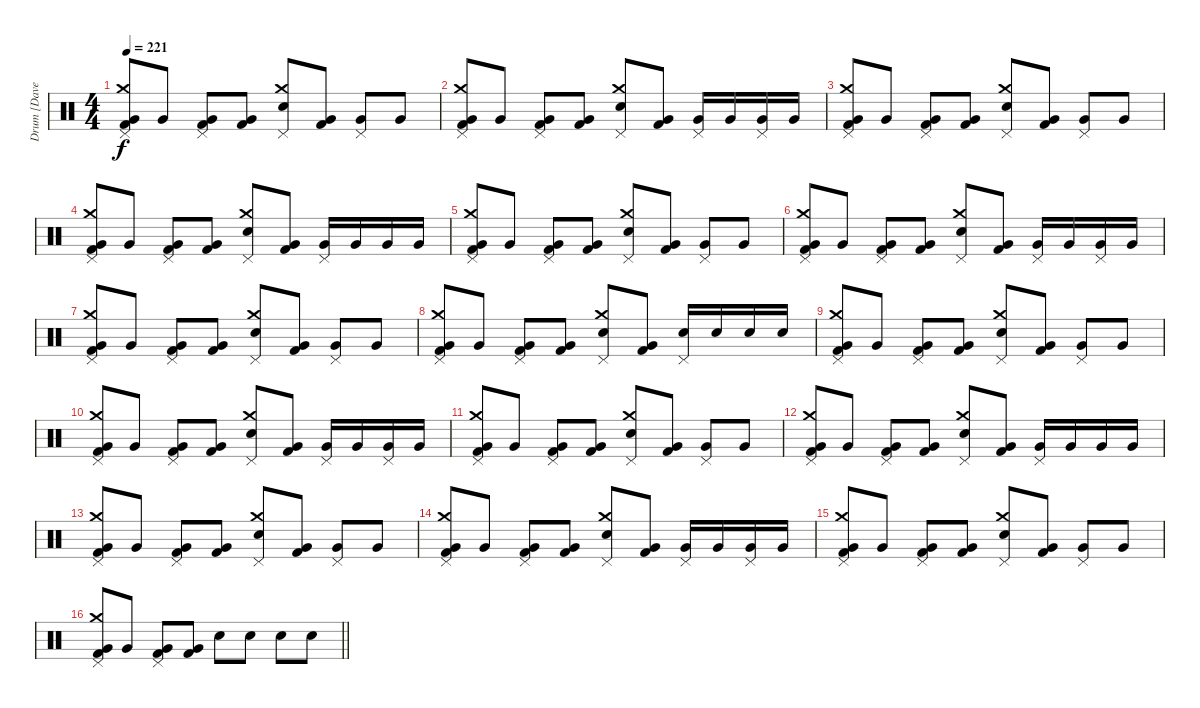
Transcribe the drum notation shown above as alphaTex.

\track ("Drum [Dave Grohl]" "Drum [Dave") {instrument percussion bank 255}
\staff {score}
\articulation defaults
\ts (4 4)
\tempo 221
\clef neutral
\ks c
("Pedal Hi-Hat (hit)" "Crash medium (hit)" "Very Low Tom (hit)" "Kick (hit) 2").8{dy f} "Very Low Tom (hit)".8 ("Pedal Hi-Hat (hit)" "Very Low Tom (hit)" "Kick (hit) 2").8 ("Very Low Tom (hit)" "Kick (hit) 2").8 ("Pedal Hi-Hat (hit)" "Crash medium (hit)" "Snare (hit) 2").8 ("Very Low Tom (hit)" "Kick (hit) 2").8 ("Pedal Hi-Hat (hit)" "Very Low Tom (hit)").8 "Very Low Tom (hit)".8 |
("Pedal Hi-Hat (hit)" "Crash medium (hit)" "Very Low Tom (hit)" "Kick (hit) 2").8 "Very Low Tom (hit)".8 ("Pedal Hi-Hat (hit)" "Very Low Tom (hit)" "Kick (hit) 2").8 ("Very Low Tom (hit)" "Kick (hit) 2").8 ("Pedal Hi-Hat (hit)" "Crash medium (hit)" "Snare (hit) 2").8 ("Very Low Tom (hit)" "Kick (hit) 2").8 ("Pedal Hi-Hat (hit)" "Very Low Tom (hit)").16 "Very Low Tom (hit)".16 ("Pedal Hi-Hat (hit)" "Very Low Tom (hit)").16 "Very Low Tom (hit)".16 |
("Pedal Hi-Hat (hit)" "Crash medium (hit)" "Very Low Tom (hit)" "Kick (hit) 2").8 "Very Low Tom (hit)".8 ("Pedal Hi-Hat (hit)" "Very Low Tom (hit)" "Kick (hit) 2").8 ("Very Low Tom (hit)" "Kick (hit) 2").8 ("Pedal Hi-Hat (hit)" "Crash medium (hit)" "Snare (hit) 2").8 ("Very Low Tom (hit)" "Kick (hit) 2").8 ("Pedal Hi-Hat (hit)" "Very Low Tom (hit)").8 "Very Low Tom (hit)".8 |
("Pedal Hi-Hat (hit)" "Crash medium (hit)" "Very Low Tom (hit)" "Kick (hit) 2").8 "Very Low Tom (hit)".8 ("Pedal Hi-Hat (hit)" "Very Low Tom (hit)" "Kick (hit) 2").8 ("Very Low Tom (hit)" "Kick (hit) 2").8 ("Pedal Hi-Hat (hit)" "Crash medium (hit)" "Snare (hit) 2").8 ("Very Low Tom (hit)" "Kick (hit) 2").8 ("Pedal Hi-Hat (hit)" "Very Low Tom (hit)").16 "Very Low Tom (hit)".16 "Very Low Tom (hit)".16 "Very Low Tom (hit)".16 |
("Pedal Hi-Hat (hit)" "Crash medium (hit)" "Very Low Tom (hit)" "Kick (hit) 2").8 "Very Low Tom (hit)".8 ("Pedal Hi-Hat (hit)" "Very Low Tom (hit)" "Kick (hit) 2").8 ("Very Low Tom (hit)" "Kick (hit) 2").8 ("Pedal Hi-Hat (hit)" "Crash medium (hit)" "Snare (hit) 2").8 ("Very Low Tom (hit)" "Kick (hit) 2").8 ("Pedal Hi-Hat (hit)" "Very Low Tom (hit)").8 "Very Low Tom (hit)".8 |
("Pedal Hi-Hat (hit)" "Crash medium (hit)" "Very Low Tom (hit)" "Kick (hit) 2").8 "Very Low Tom (hit)".8 ("Pedal Hi-Hat (hit)" "Very Low Tom (hit)" "Kick (hit) 2").8 ("Very Low Tom (hit)" "Kick (hit) 2").8 ("Pedal Hi-Hat (hit)" "Crash medium (hit)" "Snare (hit) 2").8 ("Very Low Tom (hit)" "Kick (hit) 2").8 ("Pedal Hi-Hat (hit)" "Very Low Tom (hit)").16 "Very Low Tom (hit)".16 ("Pedal Hi-Hat (hit)" "Very Low Tom (hit)").16 "Very Low Tom (hit)".16 |
("Pedal Hi-Hat (hit)" "Crash medium (hit)" "Very Low Tom (hit)" "Kick (hit) 2").8 "Very Low Tom (hit)".8 ("Pedal Hi-Hat (hit)" "Very Low Tom (hit)" "Kick (hit) 2").8 ("Very Low Tom (hit)" "Kick (hit) 2").8 ("Pedal Hi-Hat (hit)" "Crash medium (hit)" "Snare (hit) 2").8 ("Very Low Tom (hit)" "Kick (hit) 2").8 ("Pedal Hi-Hat (hit)" "Very Low Tom (hit)").8 "Very Low Tom (hit)".8 |
("Pedal Hi-Hat (hit)" "Crash medium (hit)" "Very Low Tom (hit)" "Kick (hit) 2").8 "Very Low Tom (hit)".8 ("Pedal Hi-Hat (hit)" "Very Low Tom (hit)" "Kick (hit) 2").8 ("Very Low Tom (hit)" "Kick (hit) 2").8 ("Pedal Hi-Hat (hit)" "Crash medium (hit)" "Snare (hit) 2").8 ("Very Low Tom (hit)" "Kick (hit) 2").8 ("Pedal Hi-Hat (hit)" "Snare (hit) 2").16 "Snare (hit) 2".16 "Snare (hit) 2".16 "Snare (hit) 2".16 |
("Pedal Hi-Hat (hit)" "Crash medium (hit)" "Very Low Tom (hit)" "Kick (hit) 2").8 "Very Low Tom (hit)".8 ("Pedal Hi-Hat (hit)" "Very Low Tom (hit)" "Kick (hit) 2").8 ("Very Low Tom (hit)" "Kick (hit) 2").8 ("Pedal Hi-Hat (hit)" "Crash medium (hit)" "Snare (hit) 2").8 ("Very Low Tom (hit)" "Kick (hit) 2").8 ("Pedal Hi-Hat (hit)" "Very Low Tom (hit)").8 "Very Low Tom (hit)".8 |
("Pedal Hi-Hat (hit)" "Crash medium (hit)" "Very Low Tom (hit)" "Kick (hit) 2").8 "Very Low Tom (hit)".8 ("Pedal Hi-Hat (hit)" "Very Low Tom (hit)" "Kick (hit) 2").8 ("Very Low Tom (hit)" "Kick (hit) 2").8 ("Pedal Hi-Hat (hit)" "Crash medium (hit)" "Snare (hit) 2").8 ("Very Low Tom (hit)" "Kick (hit) 2").8 ("Pedal Hi-Hat (hit)" "Very Low Tom (hit)").16 "Very Low Tom (hit)".16 ("Pedal Hi-Hat (hit)" "Very Low Tom (hit)").16 "Very Low Tom (hit)".16 |
("Pedal Hi-Hat (hit)" "Crash medium (hit)" "Very Low Tom (hit)" "Kick (hit) 2").8 "Very Low Tom (hit)".8 ("Pedal Hi-Hat (hit)" "Very Low Tom (hit)" "Kick (hit) 2").8 ("Very Low Tom (hit)" "Kick (hit) 2").8 ("Pedal Hi-Hat (hit)" "Crash medium (hit)" "Snare (hit) 2").8 ("Very Low Tom (hit)" "Kick (hit) 2").8 ("Pedal Hi-Hat (hit)" "Very Low Tom (hit)").8 "Very Low Tom (hit)".8 |
("Pedal Hi-Hat (hit)" "Crash medium (hit)" "Very Low Tom (hit)" "Kick (hit) 2").8 "Very Low Tom (hit)".8 ("Pedal Hi-Hat (hit)" "Very Low Tom (hit)" "Kick (hit) 2").8 ("Very Low Tom (hit)" "Kick (hit) 2").8 ("Pedal Hi-Hat (hit)" "Crash medium (hit)" "Snare (hit) 2").8 ("Very Low Tom (hit)" "Kick (hit) 2").8 ("Pedal Hi-Hat (hit)" "Very Low Tom (hit)").16 "Very Low Tom (hit)".16 "Very Low Tom (hit)".16 "Very Low Tom (hit)".16 |
("Pedal Hi-Hat (hit)" "Crash medium (hit)" "Very Low Tom (hit)" "Kick (hit) 2").8 "Very Low Tom (hit)".8 ("Pedal Hi-Hat (hit)" "Very Low Tom (hit)" "Kick (hit) 2").8 ("Very Low Tom (hit)" "Kick (hit) 2").8 ("Pedal Hi-Hat (hit)" "Crash medium (hit)" "Snare (hit) 2").8 ("Very Low Tom (hit)" "Kick (hit) 2").8 ("Pedal Hi-Hat (hit)" "Very Low Tom (hit)").8 "Very Low Tom (hit)".8 |
("Pedal Hi-Hat (hit)" "Crash medium (hit)" "Very Low Tom (hit)" "Kick (hit) 2").8 "Very Low Tom (hit)".8 ("Pedal Hi-Hat (hit)" "Very Low Tom (hit)" "Kick (hit) 2").8 ("Very Low Tom (hit)" "Kick (hit) 2").8 ("Pedal Hi-Hat (hit)" "Crash medium (hit)" "Snare (hit) 2").8 ("Very Low Tom (hit)" "Kick (hit) 2").8 ("Pedal Hi-Hat (hit)" "Very Low Tom (hit)").16 "Very Low Tom (hit)".16 ("Pedal Hi-Hat (hit)" "Very Low Tom (hit)").16 "Very Low Tom (hit)".16 |
("Pedal Hi-Hat (hit)" "Crash medium (hit)" "Very Low Tom (hit)" "Kick (hit) 2").8 "Very Low Tom (hit)".8 ("Pedal Hi-Hat (hit)" "Very Low Tom (hit)" "Kick (hit) 2").8 ("Very Low Tom (hit)" "Kick (hit) 2").8 ("Pedal Hi-Hat (hit)" "Crash medium (hit)" "Snare (hit) 2").8 ("Very Low Tom (hit)" "Kick (hit) 2").8 ("Pedal Hi-Hat (hit)" "Very Low Tom (hit)").8 "Very Low Tom (hit)".8 |
\barLineRight lightlight
("Pedal Hi-Hat (hit)" "Crash medium (hit)" "Very Low Tom (hit)" "Kick (hit) 2").8 "Very Low Tom (hit)".8 ("Pedal Hi-Hat (hit)" "Very Low Tom (hit)" "Kick (hit) 2").8 ("Very Low Tom (hit)" "Kick (hit) 2").8 "Snare (hit) 2".8 "Snare (hit) 2".8 "Snare (hit) 2".8 "Snare (hit) 2".8
